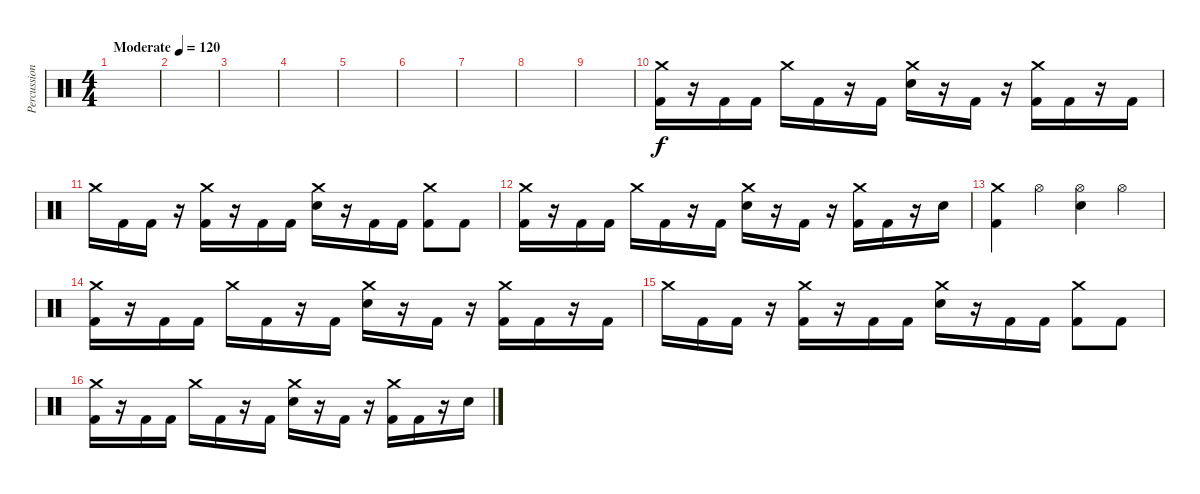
\track ("Percussion" "Percussion") {instrument percussion}
\staff {score}
\articulation defaults
\ts (4 4)
\tempo (120 "Moderate")
\clef neutral
\ks c
|
|
|
|
|
|
|
|
|
("Crash medium (hit)" "Kick (hit) 2").16 r.16 "Kick (hit) 2".16 "Kick (hit) 2".16 "Crash medium (hit)".16 "Kick (hit) 2".16 r.16 "Kick (hit) 2".16 ("Crash medium (hit)" "Electric Snare (hit)").16 r.16 "Kick (hit) 2".16 r.16 ("Crash medium (hit)" "Kick (hit) 2").16 "Kick (hit) 2".16 r.16 "Kick (hit) 2".16 |
"Crash medium (hit)".16 "Kick (hit) 2".16 "Kick (hit) 2".16 r.16 ("Crash medium (hit)" "Kick (hit) 2").16 r.16 "Kick (hit) 2".16 "Kick (hit) 2".16 ("Crash medium (hit)" "Electric Snare (hit)").16 r.16 "Kick (hit) 2".16 "Kick (hit) 2".16 ("Crash medium (hit)" "Kick (hit) 2").8 "Kick (hit) 2".8 |
("Crash medium (hit)" "Kick (hit) 2").16 r.16 "Kick (hit) 2".16 "Kick (hit) 2".16 "Crash medium (hit)".16 "Kick (hit) 2".16 r.16 "Kick (hit) 2".16 ("Crash medium (hit)" "Electric Snare (hit)").16 r.16 "Kick (hit) 2".16 r.16 ("Crash medium (hit)" "Kick (hit) 2").16 "Kick (hit) 2".16 r.16 "Electric Snare (hit)".16 |
("Crash medium (hit)" "Kick (hit) 2").4 "Hi-Hat (open)".4 ("Hi-Hat (open)" "Electric Snare (hit)").4 "Hi-Hat (open)".4 |
("Crash medium (hit)" "Kick (hit) 2").16 r.16 "Kick (hit) 2".16 "Kick (hit) 2".16 "Crash medium (hit)".16 "Kick (hit) 2".16 r.16 "Kick (hit) 2".16 ("Crash medium (hit)" "Electric Snare (hit)").16 r.16 "Kick (hit) 2".16 r.16 ("Crash medium (hit)" "Kick (hit) 2").16 "Kick (hit) 2".16 r.16 "Kick (hit) 2".16 |
"Crash medium (hit)".16 "Kick (hit) 2".16 "Kick (hit) 2".16 r.16 ("Crash medium (hit)" "Kick (hit) 2").16 r.16 "Kick (hit) 2".16 "Kick (hit) 2".16 ("Crash medium (hit)" "Electric Snare (hit)").16 r.16 "Kick (hit) 2".16 "Kick (hit) 2".16 ("Crash medium (hit)" "Kick (hit) 2").8 "Kick (hit) 2".8 |
("Crash medium (hit)" "Kick (hit) 2").16 r.16 "Kick (hit) 2".16 "Kick (hit) 2".16 "Crash medium (hit)".16 "Kick (hit) 2".16 r.16 "Kick (hit) 2".16 ("Crash medium (hit)" "Electric Snare (hit)").16 r.16 "Kick (hit) 2".16 r.16 ("Crash medium (hit)" "Kick (hit) 2").16 "Kick (hit) 2".16 r.16 "Electric Snare (hit)".16
